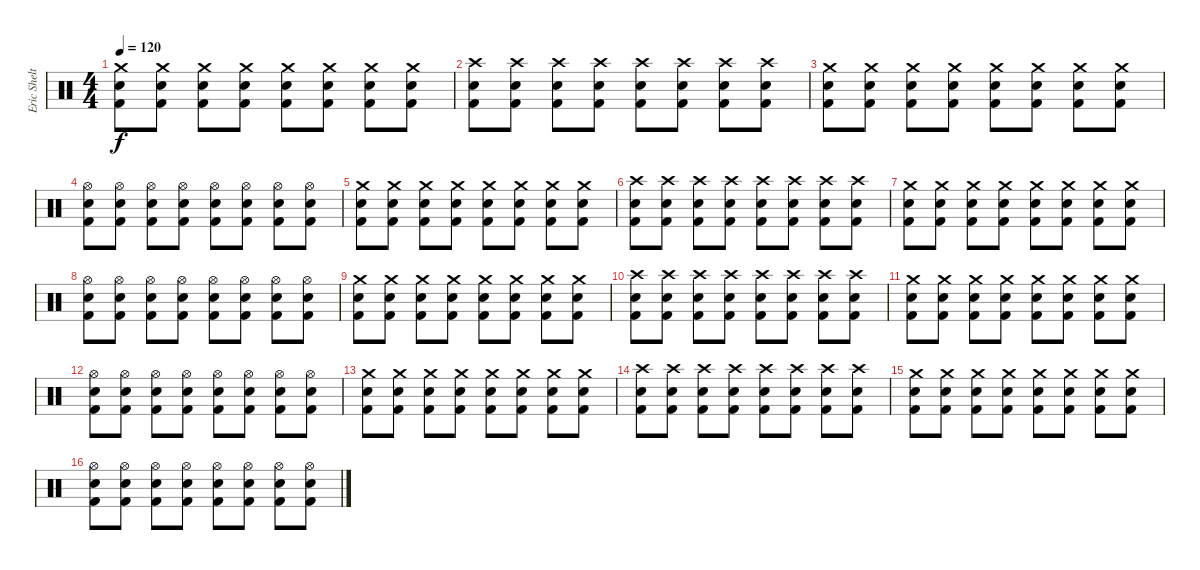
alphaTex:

\track ("Eric Shelton" "Eric Shelt") {instrument percussion}
\staff {score}
\articulation defaults
\ts (4 4)
\tempo 120
\clef neutral
\ks c
("Kick (hit) 2" "Electric Snare (hit)" "Crash medium (hit)").8{dy f} ("Kick (hit) 2" "Electric Snare (hit)" "Crash medium (hit)").8 ("Kick (hit) 2" "Electric Snare (hit)" "Crash medium (hit)").8 ("Kick (hit) 2" "Electric Snare (hit)" "Crash medium (hit)").8 ("Kick (hit) 2" "Electric Snare (hit)" "Crash medium (hit)").8 ("Kick (hit) 2" "Electric Snare (hit)" "Crash medium (hit)").8 ("Kick (hit) 2" "Electric Snare (hit)" "Crash medium (hit)").8 ("Kick (hit) 2" "Electric Snare (hit)" "Crash medium (hit)").8 |
("Kick (hit) 2" "Electric Snare (hit)" "Crash high (hit)").8 ("Kick (hit) 2" "Electric Snare (hit)" "Crash high (hit)").8 ("Kick (hit) 2" "Electric Snare (hit)" "Crash high (hit)").8 ("Kick (hit) 2" "Electric Snare (hit)" "Crash high (hit)").8 ("Kick (hit) 2" "Electric Snare (hit)" "Crash high (hit)").8 ("Kick (hit) 2" "Electric Snare (hit)" "Crash high (hit)").8 ("Kick (hit) 2" "Electric Snare (hit)" "Crash high (hit)").8 ("Kick (hit) 2" "Electric Snare (hit)" "Crash high (hit)").8 |
("Kick (hit) 2" "Electric Snare (hit)" "Crash medium (hit)").8 ("Kick (hit) 2" "Electric Snare (hit)" "Crash medium (hit)").8 ("Kick (hit) 2" "Electric Snare (hit)" "Crash medium (hit)").8 ("Kick (hit) 2" "Electric Snare (hit)" "Crash medium (hit)").8 ("Kick (hit) 2" "Electric Snare (hit)" "Crash medium (hit)").8 ("Kick (hit) 2" "Electric Snare (hit)" "Crash medium (hit)").8 ("Kick (hit) 2" "Electric Snare (hit)" "Crash medium (hit)").8 ("Kick (hit) 2" "Electric Snare (hit)" "Crash medium (hit)").8 |
("Kick (hit) 2" "Electric Snare (hit)" "Hi-Hat (open)").8 ("Kick (hit) 2" "Electric Snare (hit)" "Hi-Hat (open)").8 ("Kick (hit) 2" "Electric Snare (hit)" "Hi-Hat (open)").8 ("Kick (hit) 2" "Electric Snare (hit)" "Hi-Hat (open)").8 ("Kick (hit) 2" "Electric Snare (hit)" "Hi-Hat (open)").8 ("Kick (hit) 2" "Electric Snare (hit)" "Hi-Hat (open)").8 ("Kick (hit) 2" "Electric Snare (hit)" "Hi-Hat (open)").8 ("Kick (hit) 2" "Electric Snare (hit)" "Hi-Hat (open)").8 |
("Kick (hit) 2" "Electric Snare (hit)" "Crash medium (hit)").8 ("Kick (hit) 2" "Electric Snare (hit)" "Crash medium (hit)").8 ("Kick (hit) 2" "Electric Snare (hit)" "Crash medium (hit)").8 ("Kick (hit) 2" "Electric Snare (hit)" "Crash medium (hit)").8 ("Kick (hit) 2" "Electric Snare (hit)" "Crash medium (hit)").8 ("Kick (hit) 2" "Electric Snare (hit)" "Crash medium (hit)").8 ("Kick (hit) 2" "Electric Snare (hit)" "Crash medium (hit)").8 ("Kick (hit) 2" "Electric Snare (hit)" "Crash medium (hit)").8 |
("Kick (hit) 2" "Electric Snare (hit)" "Crash high (hit)").8 ("Kick (hit) 2" "Electric Snare (hit)" "Crash high (hit)").8 ("Kick (hit) 2" "Electric Snare (hit)" "Crash high (hit)").8 ("Kick (hit) 2" "Electric Snare (hit)" "Crash high (hit)").8 ("Kick (hit) 2" "Electric Snare (hit)" "Crash high (hit)").8 ("Kick (hit) 2" "Electric Snare (hit)" "Crash high (hit)").8 ("Kick (hit) 2" "Electric Snare (hit)" "Crash high (hit)").8 ("Kick (hit) 2" "Electric Snare (hit)" "Crash high (hit)").8 |
("Kick (hit) 2" "Electric Snare (hit)" "Crash medium (hit)").8 ("Kick (hit) 2" "Electric Snare (hit)" "Crash medium (hit)").8 ("Kick (hit) 2" "Electric Snare (hit)" "Crash medium (hit)").8 ("Kick (hit) 2" "Electric Snare (hit)" "Crash medium (hit)").8 ("Kick (hit) 2" "Electric Snare (hit)" "Crash medium (hit)").8 ("Kick (hit) 2" "Electric Snare (hit)" "Crash medium (hit)").8 ("Kick (hit) 2" "Electric Snare (hit)" "Crash medium (hit)").8 ("Kick (hit) 2" "Electric Snare (hit)" "Crash medium (hit)").8 |
("Kick (hit) 2" "Electric Snare (hit)" "Hi-Hat (open)").8 ("Kick (hit) 2" "Electric Snare (hit)" "Hi-Hat (open)").8 ("Kick (hit) 2" "Electric Snare (hit)" "Hi-Hat (open)").8 ("Kick (hit) 2" "Electric Snare (hit)" "Hi-Hat (open)").8 ("Kick (hit) 2" "Electric Snare (hit)" "Hi-Hat (open)").8 ("Kick (hit) 2" "Electric Snare (hit)" "Hi-Hat (open)").8 ("Kick (hit) 2" "Electric Snare (hit)" "Hi-Hat (open)").8 ("Kick (hit) 2" "Electric Snare (hit)" "Hi-Hat (open)").8 |
("Kick (hit) 2" "Electric Snare (hit)" "Crash medium (hit)").8 ("Kick (hit) 2" "Electric Snare (hit)" "Crash medium (hit)").8 ("Kick (hit) 2" "Electric Snare (hit)" "Crash medium (hit)").8 ("Kick (hit) 2" "Electric Snare (hit)" "Crash medium (hit)").8 ("Kick (hit) 2" "Electric Snare (hit)" "Crash medium (hit)").8 ("Kick (hit) 2" "Electric Snare (hit)" "Crash medium (hit)").8 ("Kick (hit) 2" "Electric Snare (hit)" "Crash medium (hit)").8 ("Kick (hit) 2" "Electric Snare (hit)" "Crash medium (hit)").8 |
("Kick (hit) 2" "Electric Snare (hit)" "Crash high (hit)").8 ("Kick (hit) 2" "Electric Snare (hit)" "Crash high (hit)").8 ("Kick (hit) 2" "Electric Snare (hit)" "Crash high (hit)").8 ("Kick (hit) 2" "Electric Snare (hit)" "Crash high (hit)").8 ("Kick (hit) 2" "Electric Snare (hit)" "Crash high (hit)").8 ("Kick (hit) 2" "Electric Snare (hit)" "Crash high (hit)").8 ("Kick (hit) 2" "Electric Snare (hit)" "Crash high (hit)").8 ("Kick (hit) 2" "Electric Snare (hit)" "Crash high (hit)").8 |
("Kick (hit) 2" "Electric Snare (hit)" "Crash medium (hit)").8 ("Kick (hit) 2" "Electric Snare (hit)" "Crash medium (hit)").8 ("Kick (hit) 2" "Electric Snare (hit)" "Crash medium (hit)").8 ("Kick (hit) 2" "Electric Snare (hit)" "Crash medium (hit)").8 ("Kick (hit) 2" "Electric Snare (hit)" "Crash medium (hit)").8 ("Kick (hit) 2" "Electric Snare (hit)" "Crash medium (hit)").8 ("Kick (hit) 2" "Electric Snare (hit)" "Crash medium (hit)").8 ("Kick (hit) 2" "Electric Snare (hit)" "Crash medium (hit)").8 |
("Kick (hit) 2" "Electric Snare (hit)" "Hi-Hat (open)").8 ("Kick (hit) 2" "Electric Snare (hit)" "Hi-Hat (open)").8 ("Kick (hit) 2" "Electric Snare (hit)" "Hi-Hat (open)").8 ("Kick (hit) 2" "Electric Snare (hit)" "Hi-Hat (open)").8 ("Kick (hit) 2" "Electric Snare (hit)" "Hi-Hat (open)").8 ("Kick (hit) 2" "Electric Snare (hit)" "Hi-Hat (open)").8 ("Kick (hit) 2" "Electric Snare (hit)" "Hi-Hat (open)").8 ("Kick (hit) 2" "Electric Snare (hit)" "Hi-Hat (open)").8 |
("Kick (hit) 2" "Electric Snare (hit)" "Crash medium (hit)").8 ("Kick (hit) 2" "Electric Snare (hit)" "Crash medium (hit)").8 ("Kick (hit) 2" "Electric Snare (hit)" "Crash medium (hit)").8 ("Kick (hit) 2" "Electric Snare (hit)" "Crash medium (hit)").8 ("Kick (hit) 2" "Electric Snare (hit)" "Crash medium (hit)").8 ("Kick (hit) 2" "Electric Snare (hit)" "Crash medium (hit)").8 ("Kick (hit) 2" "Electric Snare (hit)" "Crash medium (hit)").8 ("Kick (hit) 2" "Electric Snare (hit)" "Crash medium (hit)").8 |
("Kick (hit) 2" "Electric Snare (hit)" "Crash high (hit)").8 ("Kick (hit) 2" "Electric Snare (hit)" "Crash high (hit)").8 ("Kick (hit) 2" "Electric Snare (hit)" "Crash high (hit)").8 ("Kick (hit) 2" "Electric Snare (hit)" "Crash high (hit)").8 ("Kick (hit) 2" "Electric Snare (hit)" "Crash high (hit)").8 ("Kick (hit) 2" "Electric Snare (hit)" "Crash high (hit)").8 ("Kick (hit) 2" "Electric Snare (hit)" "Crash high (hit)").8 ("Kick (hit) 2" "Electric Snare (hit)" "Crash high (hit)").8 |
("Kick (hit) 2" "Electric Snare (hit)" "Crash medium (hit)").8 ("Kick (hit) 2" "Electric Snare (hit)" "Crash medium (hit)").8 ("Kick (hit) 2" "Electric Snare (hit)" "Crash medium (hit)").8 ("Kick (hit) 2" "Electric Snare (hit)" "Crash medium (hit)").8 ("Kick (hit) 2" "Electric Snare (hit)" "Crash medium (hit)").8 ("Kick (hit) 2" "Electric Snare (hit)" "Crash medium (hit)").8 ("Kick (hit) 2" "Electric Snare (hit)" "Crash medium (hit)").8 ("Kick (hit) 2" "Electric Snare (hit)" "Crash medium (hit)").8 |
("Kick (hit) 2" "Electric Snare (hit)" "Hi-Hat (open)").8 ("Kick (hit) 2" "Electric Snare (hit)" "Hi-Hat (open)").8 ("Kick (hit) 2" "Electric Snare (hit)" "Hi-Hat (open)").8 ("Kick (hit) 2" "Electric Snare (hit)" "Hi-Hat (open)").8 ("Kick (hit) 2" "Electric Snare (hit)" "Hi-Hat (open)").8 ("Kick (hit) 2" "Electric Snare (hit)" "Hi-Hat (open)").8 ("Kick (hit) 2" "Electric Snare (hit)" "Hi-Hat (open)").8 ("Kick (hit) 2" "Electric Snare (hit)" "Hi-Hat (open)").8
